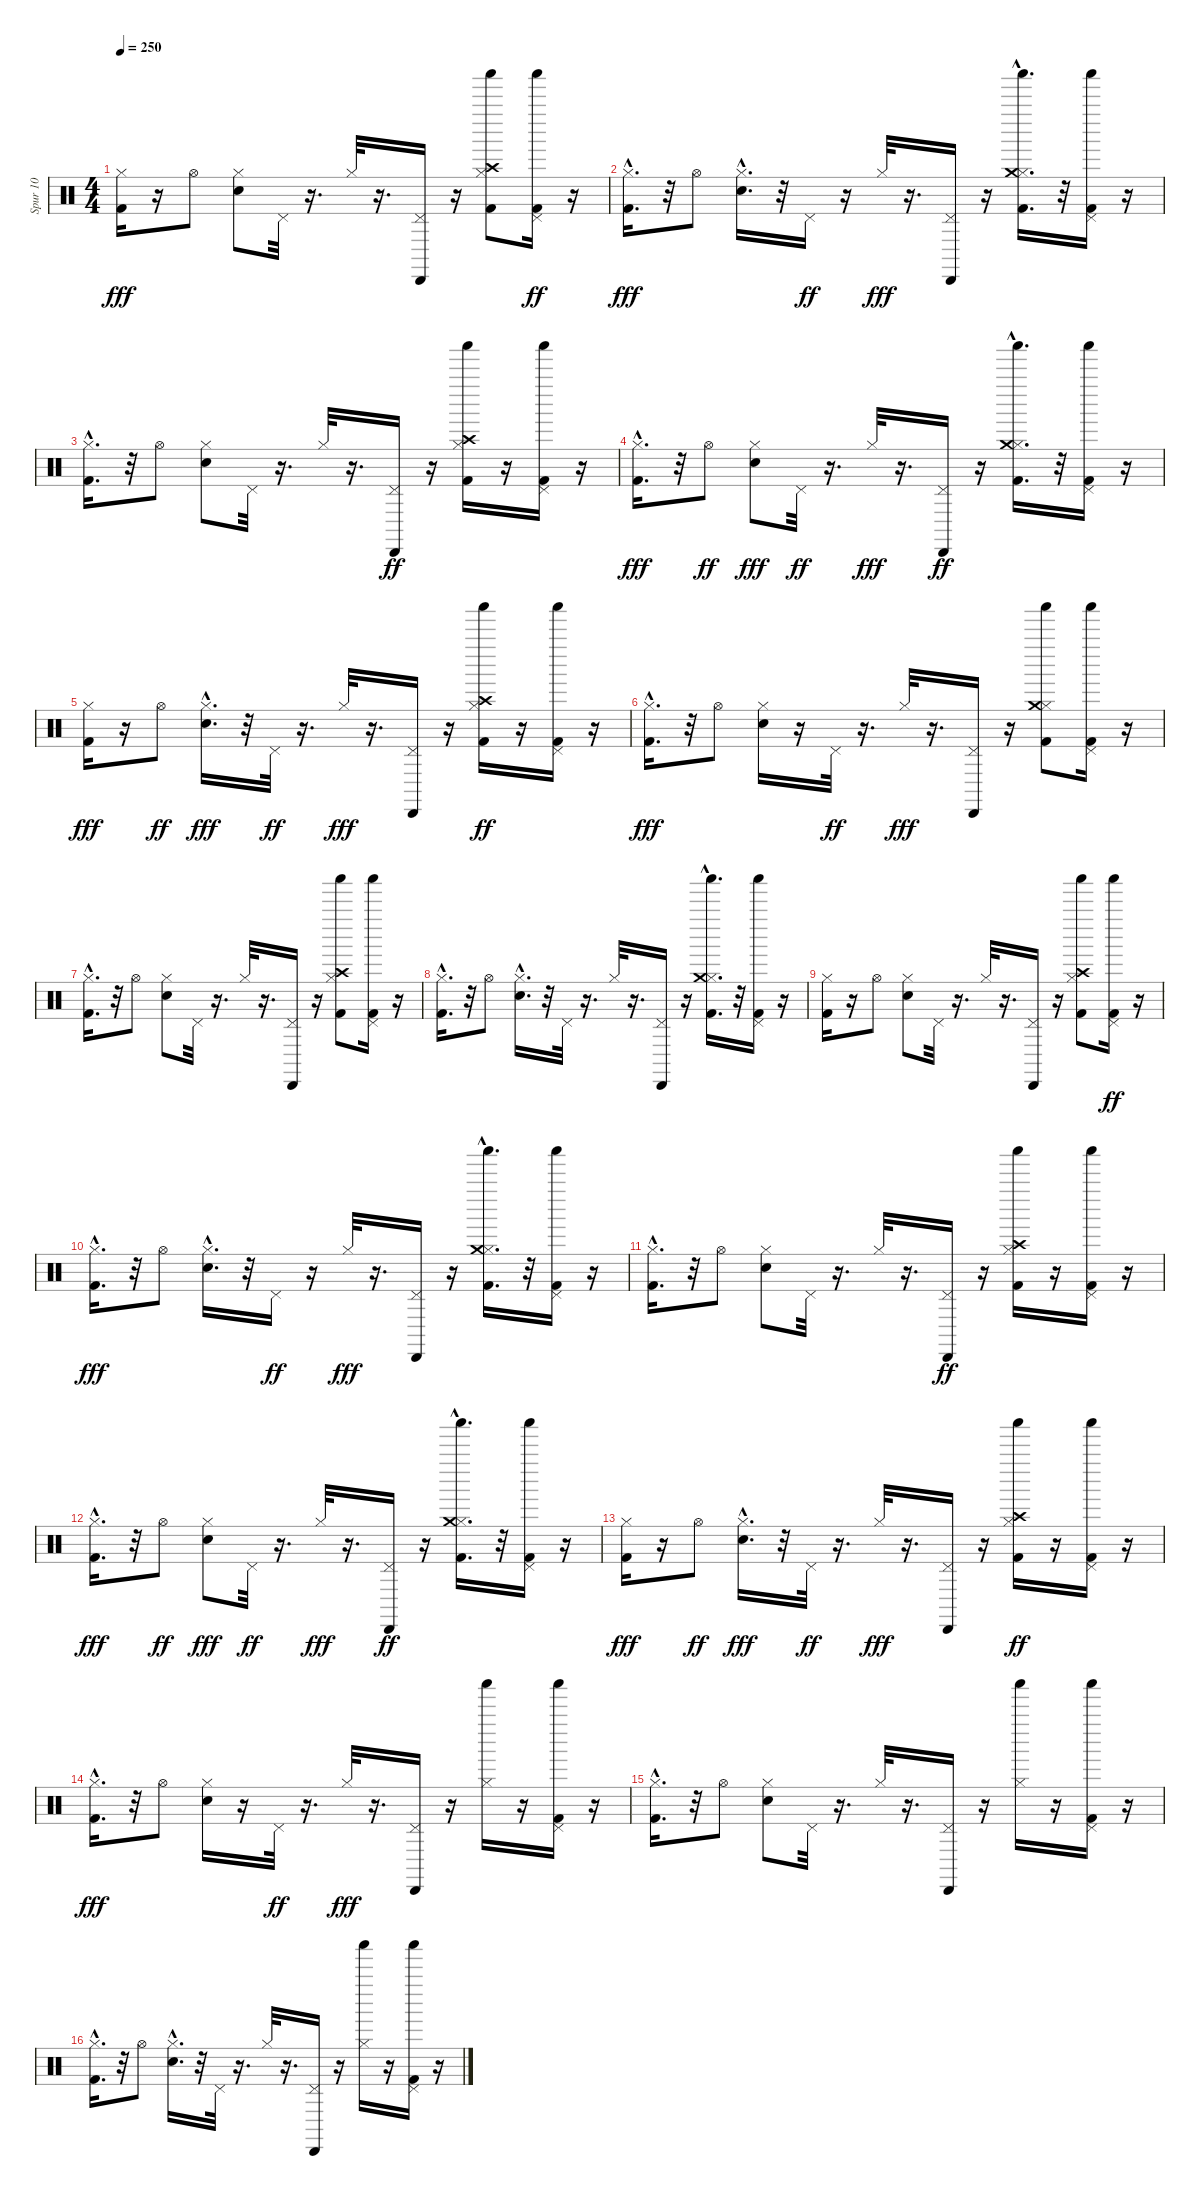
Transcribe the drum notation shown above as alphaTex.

\track ("Spur 10" "Spur 10") {instrument percussion}
\staff {score}
\articulation defaults
\ts (4 4)
\tempo 250
\clef neutral
\ks c
("Kick (hit) 2" "Hi-Hat (closed)").16{dy fff} r.16 "Hi-Hat (open)".8 ("Snare (hit) 2" "Hi-Hat (closed)").8 "Pedal Hi-Hat (hit)".32 r.16{d} "Hi-Hat (closed)".32 r.16{d} ("Pedal Hi-Hat (hit)" "Cabasa (hit)").16 r.16 ("Hi-Hat (closed)" "Shaker (hit)" "Crash high (hit)" "Kick (hit) 2").8 ("Kick (hit) 2" "Pedal Hi-Hat (hit)" "Shaker (hit)").16{dy ff} r.16 |
("Kick (hit) 2"{hac} "Hi-Hat (closed)").16{d dy fff} r.32 "Hi-Hat (open)".8 ("Snare (hit) 2"{hac} "Hi-Hat (closed)").16{d} r.32 "Pedal Hi-Hat (hit)".16{dy ff} r.16 "Hi-Hat (closed)".32{dy fff} r.16{d} ("Pedal Hi-Hat (hit)" "Cabasa (hit)").16 r.16 ("Hi-Hat (closed)" "Shaker (hit)" "Kick (hit) 2"{hac} "Crash medium (hit)").16{d} r.32 ("Kick (hit) 2" "Pedal Hi-Hat (hit)" "Shaker (hit)").16 r.16 |
("Kick (hit) 2"{hac} "Hi-Hat (closed)").16{d} r.32 "Hi-Hat (open)".8 ("Snare (hit) 2" "Hi-Hat (closed)").8 "Pedal Hi-Hat (hit)".32 r.16{d} "Hi-Hat (closed)".32 r.16{d} ("Pedal Hi-Hat (hit)" "Cabasa (hit)").16{dy ff} r.16 ("Hi-Hat (closed)" "Shaker (hit)" "Kick (hit) 2" "Crash high (hit)").16 r.16 ("Kick (hit) 2" "Pedal Hi-Hat (hit)" "Shaker (hit)").16 r.16 |
("Kick (hit) 2"{hac} "Hi-Hat (closed)").16{d dy fff} r.32 "Hi-Hat (open)".8{dy ff} ("Snare (hit) 2" "Hi-Hat (closed)").8{dy fff} "Pedal Hi-Hat (hit)".32{dy ff} r.16{d} "Hi-Hat (closed)".32{dy fff} r.16{d} ("Pedal Hi-Hat (hit)" "Cabasa (hit)").16{dy ff} r.16 ("Hi-Hat (closed)" "Shaker (hit)" "Crash medium (hit)" "Kick (hit) 2"{hac}).16{d} r.32 ("Kick (hit) 2" "Pedal Hi-Hat (hit)" "Shaker (hit)").16 r.16 |
("Kick (hit) 2" "Hi-Hat (closed)").16{dy fff} r.16 "Hi-Hat (open)".8{dy ff} ("Snare (hit) 2"{hac} "Hi-Hat (closed)").16{d dy fff} r.32 "Pedal Hi-Hat (hit)".32{dy ff} r.16{d} "Hi-Hat (closed)".32{dy fff} r.16{d} ("Pedal Hi-Hat (hit)" "Cabasa (hit)").16 r.16 ("Hi-Hat (closed)" "Shaker (hit)" "Crash high (hit)" "Kick (hit) 2").16{dy ff} r.16 ("Kick (hit) 2" "Pedal Hi-Hat (hit)" "Shaker (hit)").16 r.16 |
("Kick (hit) 2"{hac} "Hi-Hat (closed)").16{d dy fff} r.32 "Hi-Hat (open)".8 ("Snare (hit) 2" "Hi-Hat (closed)").16 r.16 "Pedal Hi-Hat (hit)".32{dy ff} r.16{d} "Hi-Hat (closed)".32{dy fff} r.16{d} ("Pedal Hi-Hat (hit)" "Cabasa (hit)").16 r.16 ("Hi-Hat (closed)" "Shaker (hit)" "Crash medium (hit)" "Kick (hit) 2").8 ("Kick (hit) 2" "Pedal Hi-Hat (hit)" "Shaker (hit)").16 r.16 |
("Kick (hit) 2"{hac} "Hi-Hat (closed)").16{d} r.32 "Hi-Hat (open)".8 ("Snare (hit) 2" "Hi-Hat (closed)").8 "Pedal Hi-Hat (hit)".32 r.16{d} "Hi-Hat (closed)".32 r.16{d} ("Pedal Hi-Hat (hit)" "Cabasa (hit)").16 r.16 ("Hi-Hat (closed)" "Shaker (hit)" "Crash high (hit)" "Kick (hit) 2").8 ("Kick (hit) 2" "Pedal Hi-Hat (hit)" "Shaker (hit)").16 r.16 |
("Kick (hit) 2"{hac} "Hi-Hat (closed)").16{d} r.32 "Hi-Hat (open)".8 ("Snare (hit) 2"{hac} "Hi-Hat (closed)").16{d} r.32 "Pedal Hi-Hat (hit)".32 r.16{d} "Hi-Hat (closed)".32 r.16{d} ("Pedal Hi-Hat (hit)" "Cabasa (hit)").16 r.16 ("Hi-Hat (closed)" "Shaker (hit)" "Crash medium (hit)" "Kick (hit) 2"{hac}).16{d} r.32 ("Kick (hit) 2" "Pedal Hi-Hat (hit)" "Shaker (hit)").16 r.16 |
("Kick (hit) 2" "Hi-Hat (closed)").16 r.16 "Hi-Hat (open)".8 ("Snare (hit) 2" "Hi-Hat (closed)").8 "Pedal Hi-Hat (hit)".32 r.16{d} "Hi-Hat (closed)".32 r.16{d} ("Pedal Hi-Hat (hit)" "Cabasa (hit)").16 r.16 ("Hi-Hat (closed)" "Shaker (hit)" "Crash high (hit)" "Kick (hit) 2").8 ("Kick (hit) 2" "Pedal Hi-Hat (hit)" "Shaker (hit)").16{dy ff} r.16 |
("Kick (hit) 2"{hac} "Hi-Hat (closed)").16{d dy fff} r.32 "Hi-Hat (open)".8 ("Snare (hit) 2"{hac} "Hi-Hat (closed)").16{d} r.32 "Pedal Hi-Hat (hit)".16{dy ff} r.16 "Hi-Hat (closed)".32{dy fff} r.16{d} ("Pedal Hi-Hat (hit)" "Cabasa (hit)").16 r.16 ("Hi-Hat (closed)" "Shaker (hit)" "Kick (hit) 2"{hac} "Crash medium (hit)").16{d} r.32 ("Kick (hit) 2" "Pedal Hi-Hat (hit)" "Shaker (hit)").16 r.16 |
("Kick (hit) 2"{hac} "Hi-Hat (closed)").16{d} r.32 "Hi-Hat (open)".8 ("Snare (hit) 2" "Hi-Hat (closed)").8 "Pedal Hi-Hat (hit)".32 r.16{d} "Hi-Hat (closed)".32 r.16{d} ("Pedal Hi-Hat (hit)" "Cabasa (hit)").16{dy ff} r.16 ("Hi-Hat (closed)" "Shaker (hit)" "Kick (hit) 2" "Crash high (hit)").16 r.16 ("Kick (hit) 2" "Pedal Hi-Hat (hit)" "Shaker (hit)").16 r.16 |
("Kick (hit) 2"{hac} "Hi-Hat (closed)").16{d dy fff} r.32 "Hi-Hat (open)".8{dy ff} ("Snare (hit) 2" "Hi-Hat (closed)").8{dy fff} "Pedal Hi-Hat (hit)".32{dy ff} r.16{d} "Hi-Hat (closed)".32{dy fff} r.16{d} ("Pedal Hi-Hat (hit)" "Cabasa (hit)").16{dy ff} r.16 ("Hi-Hat (closed)" "Shaker (hit)" "Crash medium (hit)" "Kick (hit) 2"{hac}).16{d} r.32 ("Kick (hit) 2" "Pedal Hi-Hat (hit)" "Shaker (hit)").16 r.16 |
("Kick (hit) 2" "Hi-Hat (closed)").16{dy fff} r.16 "Hi-Hat (open)".8{dy ff} ("Snare (hit) 2"{hac} "Hi-Hat (closed)").16{d dy fff} r.32 "Pedal Hi-Hat (hit)".32{dy ff} r.16{d} "Hi-Hat (closed)".32{dy fff} r.16{d} ("Pedal Hi-Hat (hit)" "Cabasa (hit)").16 r.16 ("Hi-Hat (closed)" "Shaker (hit)" "Crash high (hit)" "Kick (hit) 2").16{dy ff} r.16 ("Kick (hit) 2" "Pedal Hi-Hat (hit)" "Shaker (hit)").16 r.16 |
("Kick (hit) 2"{hac} "Hi-Hat (closed)").16{d dy fff} r.32 "Hi-Hat (open)".8 ("Snare (hit) 2" "Hi-Hat (closed)").16 r.16 "Pedal Hi-Hat (hit)".32{dy ff} r.16{d} "Hi-Hat (closed)".32{dy fff} r.16{d} ("Pedal Hi-Hat (hit)" "Cabasa (hit)").16 r.16 ("Hi-Hat (closed)" "Shaker (hit)").16 r.16 ("Kick (hit) 2" "Pedal Hi-Hat (hit)" "Shaker (hit)").16 r.16 |
("Kick (hit) 2"{hac} "Hi-Hat (closed)").16{d} r.32 "Hi-Hat (open)".8 ("Snare (hit) 2" "Hi-Hat (closed)").8 "Pedal Hi-Hat (hit)".32 r.16{d} "Hi-Hat (closed)".32 r.16{d} ("Pedal Hi-Hat (hit)" "Cabasa (hit)").16 r.16 ("Hi-Hat (closed)" "Shaker (hit)").16 r.16 ("Kick (hit) 2" "Pedal Hi-Hat (hit)" "Shaker (hit)").16 r.16 |
("Kick (hit) 2"{hac} "Hi-Hat (closed)").16{d} r.32 "Hi-Hat (open)".8 ("Snare (hit) 2"{hac} "Hi-Hat (closed)").16{d} r.32 "Pedal Hi-Hat (hit)".32 r.16{d} "Hi-Hat (closed)".32 r.16{d} ("Pedal Hi-Hat (hit)" "Cabasa (hit)").16 r.16 ("Hi-Hat (closed)" "Shaker (hit)").16 r.16 ("Kick (hit) 2" "Pedal Hi-Hat (hit)" "Shaker (hit)").16 r.16
